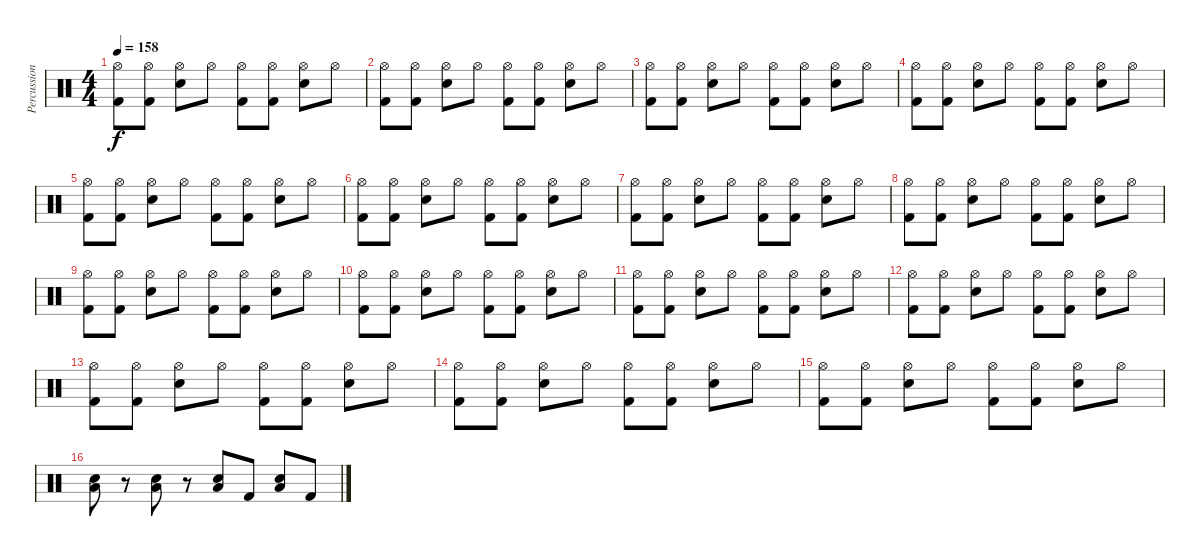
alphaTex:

\track ("Percussion" "Percussion") {instrument percussion}
\staff {score}
\articulation defaults
\ts (4 4)
\tempo 158
\clef neutral
\ks c
("Hi-Hat (open)" "Kick (hit) 2").8{dy f} ("Hi-Hat (open)" "Kick (hit) 2").8 ("Hi-Hat (open)" "Electric Snare (hit)").8 "Hi-Hat (open)".8 ("Hi-Hat (open)" "Kick (hit) 2").8 ("Hi-Hat (open)" "Kick (hit) 2").8 ("Hi-Hat (open)" "Electric Snare (hit)").8 "Hi-Hat (open)".8 |
("Hi-Hat (open)" "Kick (hit) 2").8 ("Hi-Hat (open)" "Kick (hit) 2").8 ("Hi-Hat (open)" "Electric Snare (hit)").8 "Hi-Hat (open)".8 ("Hi-Hat (open)" "Kick (hit) 2").8 ("Hi-Hat (open)" "Kick (hit) 2").8 ("Hi-Hat (open)" "Electric Snare (hit)").8 "Hi-Hat (open)".8 |
("Hi-Hat (open)" "Kick (hit) 2").8 ("Hi-Hat (open)" "Kick (hit) 2").8 ("Hi-Hat (open)" "Electric Snare (hit)").8 "Hi-Hat (open)".8 ("Hi-Hat (open)" "Kick (hit) 2").8 ("Hi-Hat (open)" "Kick (hit) 2").8 ("Hi-Hat (open)" "Electric Snare (hit)").8 "Hi-Hat (open)".8 |
("Hi-Hat (open)" "Kick (hit) 2").8 ("Hi-Hat (open)" "Kick (hit) 2").8 ("Hi-Hat (open)" "Electric Snare (hit)").8 "Hi-Hat (open)".8 ("Hi-Hat (open)" "Kick (hit) 2").8 ("Hi-Hat (open)" "Kick (hit) 2").8 ("Hi-Hat (open)" "Electric Snare (hit)").8 "Hi-Hat (open)".8 |
("Hi-Hat (open)" "Kick (hit) 2").8 ("Hi-Hat (open)" "Kick (hit) 2").8 ("Hi-Hat (open)" "Electric Snare (hit)").8 "Hi-Hat (open)".8 ("Hi-Hat (open)" "Kick (hit) 2").8 ("Hi-Hat (open)" "Kick (hit) 2").8 ("Hi-Hat (open)" "Electric Snare (hit)").8 "Hi-Hat (open)".8 |
("Hi-Hat (open)" "Kick (hit) 2").8 ("Hi-Hat (open)" "Kick (hit) 2").8 ("Hi-Hat (open)" "Electric Snare (hit)").8 "Hi-Hat (open)".8 ("Hi-Hat (open)" "Kick (hit) 2").8 ("Hi-Hat (open)" "Kick (hit) 2").8 ("Hi-Hat (open)" "Electric Snare (hit)").8 "Hi-Hat (open)".8 |
("Hi-Hat (open)" "Kick (hit) 2").8 ("Hi-Hat (open)" "Kick (hit) 2").8 ("Hi-Hat (open)" "Electric Snare (hit)").8 "Hi-Hat (open)".8 ("Hi-Hat (open)" "Kick (hit) 2").8 ("Hi-Hat (open)" "Kick (hit) 2").8 ("Hi-Hat (open)" "Electric Snare (hit)").8 "Hi-Hat (open)".8 |
("Hi-Hat (open)" "Kick (hit) 2").8 ("Hi-Hat (open)" "Kick (hit) 2").8 ("Hi-Hat (open)" "Electric Snare (hit)").8 "Hi-Hat (open)".8 ("Hi-Hat (open)" "Kick (hit) 2").8 ("Hi-Hat (open)" "Kick (hit) 2").8 ("Hi-Hat (open)" "Electric Snare (hit)").8 "Hi-Hat (open)".8 |
("Hi-Hat (open)" "Kick (hit) 2").8 ("Hi-Hat (open)" "Kick (hit) 2").8 ("Hi-Hat (open)" "Electric Snare (hit)").8 "Hi-Hat (open)".8 ("Hi-Hat (open)" "Kick (hit) 2").8 ("Hi-Hat (open)" "Kick (hit) 2").8 ("Hi-Hat (open)" "Electric Snare (hit)").8 "Hi-Hat (open)".8 |
("Hi-Hat (open)" "Kick (hit) 2").8 ("Hi-Hat (open)" "Kick (hit) 2").8 ("Hi-Hat (open)" "Electric Snare (hit)").8 "Hi-Hat (open)".8 ("Hi-Hat (open)" "Kick (hit) 2").8 ("Hi-Hat (open)" "Kick (hit) 2").8 ("Hi-Hat (open)" "Electric Snare (hit)").8 "Hi-Hat (open)".8 |
("Hi-Hat (open)" "Kick (hit) 2").8 ("Hi-Hat (open)" "Kick (hit) 2").8 ("Hi-Hat (open)" "Electric Snare (hit)").8 "Hi-Hat (open)".8 ("Hi-Hat (open)" "Kick (hit) 2").8 ("Hi-Hat (open)" "Kick (hit) 2").8 ("Hi-Hat (open)" "Electric Snare (hit)").8 "Hi-Hat (open)".8 |
("Hi-Hat (open)" "Kick (hit) 2").8 ("Hi-Hat (open)" "Kick (hit) 2").8 ("Hi-Hat (open)" "Electric Snare (hit)").8 "Hi-Hat (open)".8 ("Hi-Hat (open)" "Kick (hit) 2").8 ("Hi-Hat (open)" "Kick (hit) 2").8 ("Hi-Hat (open)" "Electric Snare (hit)").8 "Hi-Hat (open)".8 |
("Hi-Hat (open)" "Kick (hit) 2").8 ("Hi-Hat (open)" "Kick (hit) 2").8 ("Hi-Hat (open)" "Electric Snare (hit)").8 "Hi-Hat (open)".8 ("Hi-Hat (open)" "Kick (hit) 2").8 ("Hi-Hat (open)" "Kick (hit) 2").8 ("Hi-Hat (open)" "Electric Snare (hit)").8 "Hi-Hat (open)".8 |
("Hi-Hat (open)" "Kick (hit) 2").8 ("Hi-Hat (open)" "Kick (hit) 2").8 ("Hi-Hat (open)" "Electric Snare (hit)").8 "Hi-Hat (open)".8 ("Hi-Hat (open)" "Kick (hit) 2").8 ("Hi-Hat (open)" "Kick (hit) 2").8 ("Hi-Hat (open)" "Electric Snare (hit)").8 "Hi-Hat (open)".8 |
("Hi-Hat (open)" "Kick (hit) 2").8 ("Hi-Hat (open)" "Kick (hit) 2").8 ("Hi-Hat (open)" "Electric Snare (hit)").8 "Hi-Hat (open)".8 ("Hi-Hat (open)" "Kick (hit) 2").8 ("Hi-Hat (open)" "Kick (hit) 2").8 ("Hi-Hat (open)" "Electric Snare (hit)").8 "Hi-Hat (open)".8 |
("Electric Snare (hit)" "Low Floor Tom (hit)").8 r.8 ("Electric Snare (hit)" "Low Floor Tom (hit)").8 r.8 ("Electric Snare (hit)" "Low Floor Tom (hit)").8 "Kick (hit) 2".8 ("Electric Snare (hit)" "Low Floor Tom (hit)").8 "Kick (hit) 2".8
